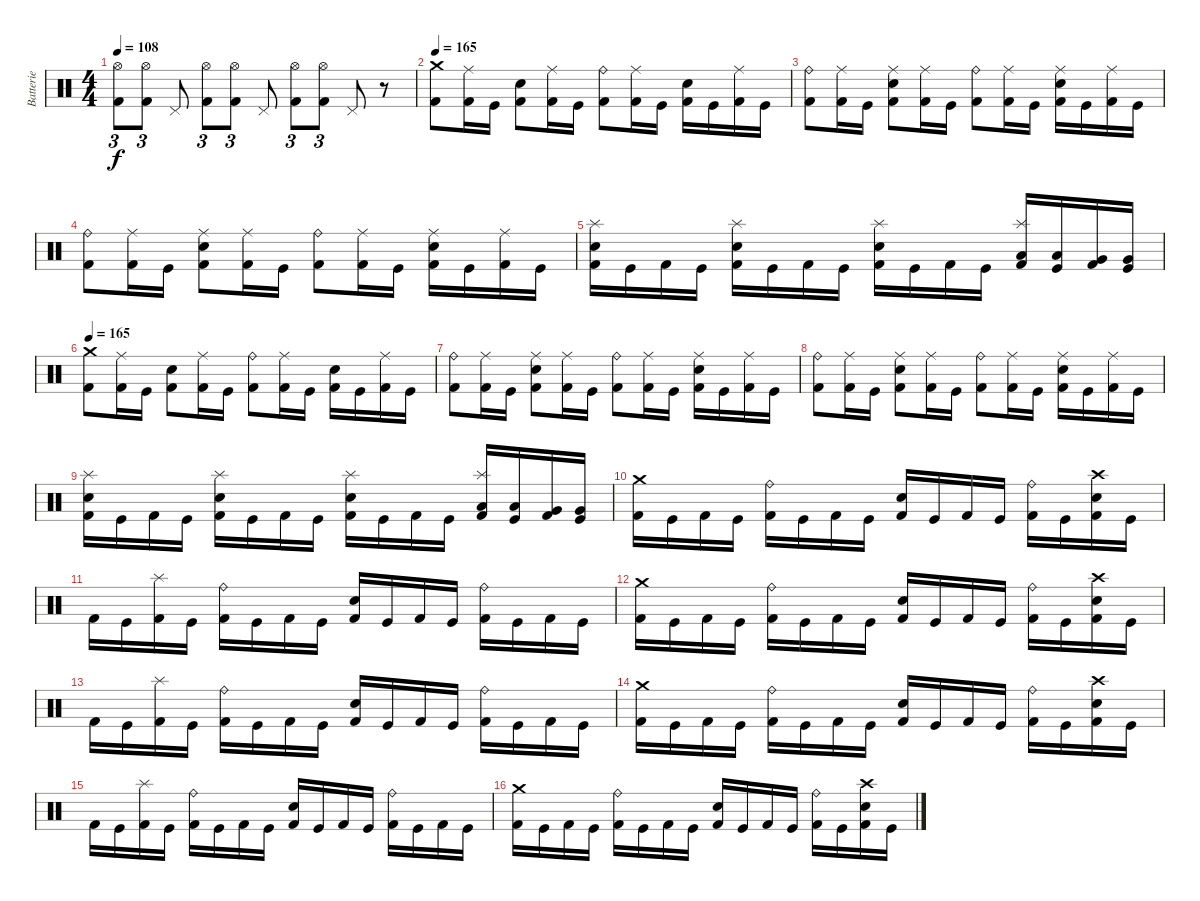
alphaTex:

\track ("Batterie" "Batterie") {instrument percussion}
\staff {score}
\articulation defaults
\ts (4 4)
\tempo 108
\clef neutral
\ks c
("Hi-Hat (open)" "Kick (hit) 2").8{tu (3 2) dy f} ("Hi-Hat (open)" "Kick (hit) 2").8{tu (3 2)} "Pedal Hi-Hat (hit)".8 ("Hi-Hat (open)" "Kick (hit) 2").8{tu (3 2)} ("Hi-Hat (open)" "Kick (hit) 2").8{tu (3 2)} "Pedal Hi-Hat (hit)".8 ("Hi-Hat (open)" "Kick (hit) 2").8{tu (3 2)} ("Hi-Hat (open)" "Kick (hit) 2").8{tu (3 2)} "Pedal Hi-Hat (hit)".8 r.8 |
\tempo 165
("Crash medium (hit)" "Kick (hit) 2").8 ("Ride (middle)" "Kick (hit) 2").16 "Kick (hit)".16 ("Snare (hit) 2" "Kick (hit) 2").8 ("Ride (middle)" "Kick (hit) 2").16 "Kick (hit)".16 ("Ride (bell)" "Kick (hit) 2").8 ("Ride (middle)" "Kick (hit) 2").16 "Kick (hit)".16 ("Snare (hit) 2" "Kick (hit) 2").16 "Kick (hit)".16 ("Ride (middle)" "Kick (hit) 2").16 "Kick (hit)".16 |
("Ride (bell)" "Kick (hit) 2").8 ("Ride (middle)" "Kick (hit) 2").16 "Kick (hit)".16 ("Ride (middle)" "Snare (hit) 2" "Kick (hit) 2").8 ("Ride (middle)" "Kick (hit) 2").16 "Kick (hit)".16 ("Ride (bell)" "Kick (hit) 2").8 ("Ride (middle)" "Kick (hit) 2").16 "Kick (hit)".16 ("Ride (middle)" "Snare (hit) 2" "Kick (hit) 2").16 "Kick (hit)".16 ("Ride (middle)" "Kick (hit) 2").16 "Kick (hit)".16 |
("Ride (bell)" "Kick (hit) 2").8 ("Ride (middle)" "Kick (hit) 2").16 "Kick (hit)".16 ("Ride (middle)" "Snare (hit) 2" "Kick (hit) 2").8 ("Ride (middle)" "Kick (hit) 2").16 "Kick (hit)".16 ("Ride (bell)" "Kick (hit) 2").8 ("Ride (middle)" "Kick (hit) 2").16 "Kick (hit)".16 ("Ride (middle)" "Snare (hit) 2" "Kick (hit) 2").16 "Kick (hit)".16 ("Ride (middle)" "Kick (hit) 2").16 "Kick (hit)".16 |
("Splash (hit)" "Snare (hit) 2" "Kick (hit) 2").16 "Kick (hit)".16 "Kick (hit) 2".16 "Kick (hit)".16 ("Splash (hit)" "Snare (hit) 2" "Kick (hit) 2").16 "Kick (hit)".16 "Kick (hit) 2".16 "Kick (hit)".16 ("Splash (hit)" "Snare (hit) 2" "Kick (hit) 2").16 "Kick (hit)".16 "Kick (hit) 2".16 "Kick (hit)".16 ("Splash (hit)" "Low Tom (hit)" "Kick (hit) 2").16 ("Low Tom (hit)" "Kick (hit)").16 ("Very Low Tom (hit)" "Kick (hit) 2").16 ("Very Low Tom (hit)" "Kick (hit)").16 |
\tempo 165
("Crash medium (hit)" "Kick (hit) 2").8 ("Ride (middle)" "Kick (hit) 2").16 "Kick (hit)".16 ("Snare (hit) 2" "Kick (hit) 2").8 ("Ride (middle)" "Kick (hit) 2").16 "Kick (hit)".16 ("Ride (bell)" "Kick (hit) 2").8 ("Ride (middle)" "Kick (hit) 2").16 "Kick (hit)".16 ("Snare (hit) 2" "Kick (hit) 2").16 "Kick (hit)".16 ("Ride (middle)" "Kick (hit) 2").16 "Kick (hit)".16 |
("Ride (bell)" "Kick (hit) 2").8 ("Ride (middle)" "Kick (hit) 2").16 "Kick (hit)".16 ("Ride (middle)" "Snare (hit) 2" "Kick (hit) 2").8 ("Ride (middle)" "Kick (hit) 2").16 "Kick (hit)".16 ("Ride (bell)" "Kick (hit) 2").8 ("Ride (middle)" "Kick (hit) 2").16 "Kick (hit)".16 ("Ride (middle)" "Snare (hit) 2" "Kick (hit) 2").16 "Kick (hit)".16 ("Ride (middle)" "Kick (hit) 2").16 "Kick (hit)".16 |
("Ride (bell)" "Kick (hit) 2").8 ("Ride (middle)" "Kick (hit) 2").16 "Kick (hit)".16 ("Ride (middle)" "Snare (hit) 2" "Kick (hit) 2").8 ("Ride (middle)" "Kick (hit) 2").16 "Kick (hit)".16 ("Ride (bell)" "Kick (hit) 2").8 ("Ride (middle)" "Kick (hit) 2").16 "Kick (hit)".16 ("Ride (middle)" "Snare (hit) 2" "Kick (hit) 2").16 "Kick (hit)".16 ("Ride (middle)" "Kick (hit) 2").16 "Kick (hit)".16 |
("Splash (hit)" "Snare (hit) 2" "Kick (hit) 2").16 "Kick (hit)".16 "Kick (hit) 2".16 "Kick (hit)".16 ("Splash (hit)" "Snare (hit) 2" "Kick (hit) 2").16 "Kick (hit)".16 "Kick (hit) 2".16 "Kick (hit)".16 ("Splash (hit)" "Snare (hit) 2" "Kick (hit) 2").16 "Kick (hit)".16 "Kick (hit) 2".16 "Kick (hit)".16 ("Splash (hit)" "Low Tom (hit)" "Kick (hit) 2").16 ("Low Tom (hit)" "Kick (hit)").16 ("Very Low Tom (hit)" "Kick (hit) 2").16 ("Very Low Tom (hit)" "Kick (hit)").16 |
("Crash medium (hit)" "Kick (hit) 2").16 "Kick (hit)".16 "Kick (hit) 2".16 "Kick (hit)".16 ("Ride (bell)" "Kick (hit) 2").16 "Kick (hit)".16 "Kick (hit) 2".16 "Kick (hit)".16 ("Snare (hit) 2" "Kick (hit) 2").16 "Kick (hit)".16 "Kick (hit) 2".16 "Kick (hit)".16 ("Ride (bell)" "Kick (hit) 2").16 "Kick (hit)".16 ("Crash high (hit)" "Snare (hit) 2" "Kick (hit) 2").16 "Kick (hit)".16 |
"Kick (hit) 2".16 "Kick (hit)".16 ("Splash (hit)" "Kick (hit) 2").16 "Kick (hit)".16 ("Ride (bell)" "Kick (hit) 2").16 "Kick (hit)".16 "Kick (hit) 2".16 "Kick (hit)".16 ("Snare (hit) 2" "Kick (hit) 2").16 "Kick (hit)".16 "Kick (hit) 2".16 "Kick (hit)".16 ("Ride (bell)" "Kick (hit) 2").16 "Kick (hit)".16 "Kick (hit) 2".16 "Kick (hit)".16 |
("Crash medium (hit)" "Kick (hit) 2").16 "Kick (hit)".16 "Kick (hit) 2".16 "Kick (hit)".16 ("Ride (bell)" "Kick (hit) 2").16 "Kick (hit)".16 "Kick (hit) 2".16 "Kick (hit)".16 ("Snare (hit) 2" "Kick (hit) 2").16 "Kick (hit)".16 "Kick (hit) 2".16 "Kick (hit)".16 ("Ride (bell)" "Kick (hit) 2").16 "Kick (hit)".16 ("Crash high (hit)" "Snare (hit) 2" "Kick (hit) 2").16 "Kick (hit)".16 |
"Kick (hit) 2".16 "Kick (hit)".16 ("Splash (hit)" "Kick (hit) 2").16 "Kick (hit)".16 ("Ride (bell)" "Kick (hit) 2").16 "Kick (hit)".16 "Kick (hit) 2".16 "Kick (hit)".16 ("Snare (hit) 2" "Kick (hit) 2").16 "Kick (hit)".16 "Kick (hit) 2".16 "Kick (hit)".16 ("Ride (bell)" "Kick (hit) 2").16 "Kick (hit)".16 "Kick (hit) 2".16 "Kick (hit)".16 |
("Crash medium (hit)" "Kick (hit) 2").16 "Kick (hit)".16 "Kick (hit) 2".16 "Kick (hit)".16 ("Ride (bell)" "Kick (hit) 2").16 "Kick (hit)".16 "Kick (hit) 2".16 "Kick (hit)".16 ("Snare (hit) 2" "Kick (hit) 2").16 "Kick (hit)".16 "Kick (hit) 2".16 "Kick (hit)".16 ("Ride (bell)" "Kick (hit) 2").16 "Kick (hit)".16 ("Crash high (hit)" "Snare (hit) 2" "Kick (hit) 2").16 "Kick (hit)".16 |
"Kick (hit) 2".16 "Kick (hit)".16 ("Splash (hit)" "Kick (hit) 2").16 "Kick (hit)".16 ("Ride (bell)" "Kick (hit) 2").16 "Kick (hit)".16 "Kick (hit) 2".16 "Kick (hit)".16 ("Snare (hit) 2" "Kick (hit) 2").16 "Kick (hit)".16 "Kick (hit) 2".16 "Kick (hit)".16 ("Ride (bell)" "Kick (hit) 2").16 "Kick (hit)".16 "Kick (hit) 2".16 "Kick (hit)".16 |
("Crash medium (hit)" "Kick (hit) 2").16 "Kick (hit)".16 "Kick (hit) 2".16 "Kick (hit)".16 ("Ride (bell)" "Kick (hit) 2").16 "Kick (hit)".16 "Kick (hit) 2".16 "Kick (hit)".16 ("Snare (hit) 2" "Kick (hit) 2").16 "Kick (hit)".16 "Kick (hit) 2".16 "Kick (hit)".16 ("Ride (bell)" "Kick (hit) 2").16 "Kick (hit)".16 ("Crash high (hit)" "Snare (hit) 2" "Kick (hit) 2").16 "Kick (hit)".16
